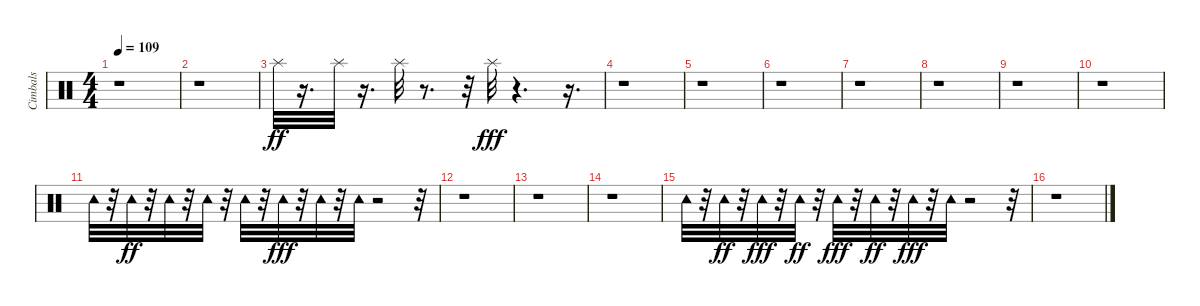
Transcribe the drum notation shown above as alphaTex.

\track ("Cimbals" "Cimbals") {instrument percussion}
\staff {score}
\articulation defaults
\ts (4 4)
\tempo 109
\clef neutral
\ks c
r.1{dy fff} |
r.1 |
"Splash (hit)".32{dy ff} r.16{d} "Splash (hit)".32 r.16{d} "Splash (hit)".32 r.8{d} r.32 "Splash (hit)".32{dy fff} r.4{d} r.16{d} |
r.1 |
r.1 |
r.1 |
r.1 |
r.1 |
r.1 |
r.1 |
"Tambourine (hit)".32 r.32 "Tambourine (hit)".32{dy ff} r.32 "Tambourine (hit)".32 r.32 "Tambourine (hit)".32 r.32 "Tambourine (hit)".32 r.32 "Tambourine (hit)".32{dy fff} r.32 "Tambourine (hit)".32 r.32 "Tambourine (hit)".32 r.2 r.32 |
r.1 |
r.1 |
r.1 |
"Tambourine (hit)".32 r.32 "Tambourine (hit)".32{dy ff} r.32 "Tambourine (hit)".32{dy fff} r.32 "Tambourine (hit)".32{dy ff} r.32 "Tambourine (hit)".32{dy fff} r.32 "Tambourine (hit)".32{dy ff} r.32 "Tambourine (hit)".32{dy fff} r.32 "Tambourine (hit)".32 r.2 r.32 |
r.1
